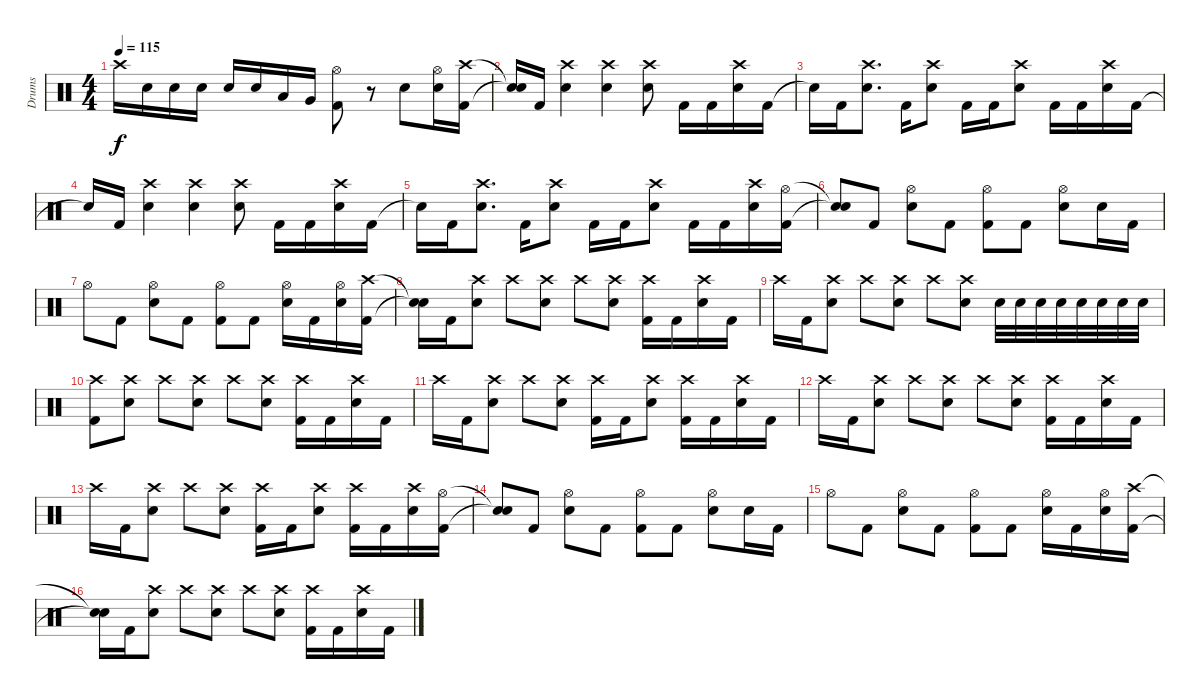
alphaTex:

\track ("Drums" "Drums") {instrument percussion}
\staff {score}
\articulation defaults
\ts (4 4)
\tempo 115
\clef neutral
\ks c "Crash high (hit)".16{dy f} "Electric Snare (hit)".16 "Electric Snare (hit)".16 "Electric Snare (hit)".16 "Electric Snare (hit)".16 "Electric Snare (hit)".16 "Low Tom (hit)".16 "Very Low Tom (hit)".16
("Hi-Hat (open)" "Kick (hit) 2").8 r.8{volume 0} "Electric Snare (hit)".8{volume 13} ("Hi-Hat (open)" "Electric Snare (hit)").16 ("Crash high (hit)" "Kick (hit) 2").16 |
("Snare (hit)"{t} "Snare (hit)"{t}).16 "Kick (hit) 2".16 ("Crash high (hit)" "Electric Snare (hit)").4 ("Crash high (hit)" "Electric Snare (hit)").4 ("Crash high (hit)" "Electric Snare (hit)").8 "Kick (hit) 2".16 "Kick (hit) 2".16 ("Crash high (hit)" "Electric Snare (hit)").16 "Kick (hit) 2".16 |
"Snare (hit)"{t}.16 "Kick (hit) 2".16 ("Crash high (hit)" "Electric Snare (hit)").8{d} "Kick (hit) 2".16 ("Crash high (hit)" "Electric Snare (hit)").8 "Kick (hit) 2".16 "Kick (hit) 2".16 ("Crash high (hit)" "Electric Snare (hit)").8 "Kick (hit) 2".16 "Kick (hit) 2".16 ("Crash high (hit)" "Electric Snare (hit)").16 "Kick (hit) 2".16 |
"Snare (hit)"{t}.16 "Kick (hit) 2".16 ("Crash high (hit)" "Electric Snare (hit)").4 ("Crash high (hit)" "Electric Snare (hit)").4 ("Crash high (hit)" "Electric Snare (hit)").8 "Kick (hit) 2".16 "Kick (hit) 2".16 ("Crash high (hit)" "Electric Snare (hit)").16 "Kick (hit) 2".16 |
"Snare (hit)"{t}.16 "Kick (hit) 2".16 ("Crash high (hit)" "Electric Snare (hit)").8{d} "Kick (hit) 2".16 ("Crash high (hit)" "Electric Snare (hit)").8 "Kick (hit) 2".16 "Kick (hit) 2".16 ("Crash high (hit)" "Electric Snare (hit)").8 "Kick (hit) 2".16 "Kick (hit) 2".16 ("Crash high (hit)" "Electric Snare (hit)").16 ("Hi-Hat (open)" "Kick (hit) 2").16 |
("Snare (hit)"{t} "Snare (hit)"{t}).8 "Kick (hit) 2".8 ("Hi-Hat (open)" "Electric Snare (hit)").8 "Kick (hit) 2".8 ("Hi-Hat (open)" "Kick (hit) 2").8 "Kick (hit) 2".8 ("Hi-Hat (open)" "Electric Snare (hit)").8 "Electric Snare (hit)".16 "Kick (hit) 2".16 |
"Hi-Hat (open)".8 "Kick (hit) 2".8 ("Hi-Hat (open)" "Electric Snare (hit)").8 "Kick (hit) 2".8 ("Hi-Hat (open)" "Kick (hit) 2").8 "Kick (hit) 2".8 ("Hi-Hat (open)" "Electric Snare (hit)").16 "Kick (hit) 2".16 ("Hi-Hat (open)" "Electric Snare (hit)").16 ("Crash high (hit)" "Kick (hit) 2").16 |
("Snare (hit)"{t} "Snare (hit)"{t}).16 "Kick (hit) 2".16 ("Crash high (hit)" "Electric Snare (hit)").8 "Crash high (hit)".8 ("Crash high (hit)" "Electric Snare (hit)").8 "Crash high (hit)".8 ("Crash high (hit)" "Electric Snare (hit)").8 ("Crash high (hit)" "Kick (hit) 2").16 "Kick (hit) 2".16 ("Crash high (hit)" "Electric Snare (hit)").16 "Kick (hit) 2".16 |
"Crash high (hit)".16 "Kick (hit) 2".16 ("Crash high (hit)" "Electric Snare (hit)").8 "Crash high (hit)".8 ("Crash high (hit)" "Electric Snare (hit)").8 "Crash high (hit)".8 ("Crash high (hit)" "Electric Snare (hit)").8 "Electric Snare (hit)".32 "Electric Snare (hit)".32 "Electric Snare (hit)".32 "Electric Snare (hit)".32 "Electric Snare (hit)".32 "Electric Snare (hit)".32 "Electric Snare (hit)".32 "Electric Snare (hit)".32 |
("Crash high (hit)" "Kick (hit) 2").8 ("Crash high (hit)" "Electric Snare (hit)").8 "Crash high (hit)".8 ("Crash high (hit)" "Electric Snare (hit)").8 "Crash high (hit)".8 ("Crash high (hit)" "Electric Snare (hit)").8 ("Crash high (hit)" "Kick (hit) 2").16 "Kick (hit) 2".16 ("Crash high (hit)" "Electric Snare (hit)").16 "Kick (hit) 2".16 |
"Crash high (hit)".16 "Kick (hit) 2".16 ("Crash high (hit)" "Electric Snare (hit)").8 "Crash high (hit)".8 ("Crash high (hit)" "Electric Snare (hit)").8 ("Crash high (hit)" "Kick (hit) 2").16 "Kick (hit) 2".16 ("Crash high (hit)" "Electric Snare (hit)").8 ("Crash high (hit)" "Kick (hit) 2").16 "Kick (hit) 2".16 ("Crash high (hit)" "Electric Snare (hit)").16 "Kick (hit) 2".16 |
"Crash high (hit)".16 "Kick (hit) 2".16 ("Crash high (hit)" "Electric Snare (hit)").8 "Crash high (hit)".8 ("Crash high (hit)" "Electric Snare (hit)").8 "Crash high (hit)".8 ("Crash high (hit)" "Electric Snare (hit)").8 ("Crash high (hit)" "Kick (hit) 2").16 "Kick (hit) 2".16 ("Crash high (hit)" "Electric Snare (hit)").16 "Kick (hit) 2".16 |
"Crash high (hit)".16 "Kick (hit) 2".16 ("Crash high (hit)" "Electric Snare (hit)").8 "Crash high (hit)".8 ("Crash high (hit)" "Electric Snare (hit)").8 ("Crash high (hit)" "Kick (hit) 2").16 "Kick (hit) 2".16 ("Crash high (hit)" "Electric Snare (hit)").8 ("Crash high (hit)" "Kick (hit) 2").16 "Kick (hit) 2".16 ("Crash high (hit)" "Electric Snare (hit)").16 ("Hi-Hat (open)" "Kick (hit) 2").16 |
("Snare (hit)"{t} "Snare (hit)"{t}).8 "Kick (hit) 2".8 ("Hi-Hat (open)" "Electric Snare (hit)").8 "Kick (hit) 2".8 ("Hi-Hat (open)" "Kick (hit) 2").8 "Kick (hit) 2".8 ("Hi-Hat (open)" "Electric Snare (hit)").8 "Electric Snare (hit)".16 "Kick (hit) 2".16 |
"Hi-Hat (open)".8 "Kick (hit) 2".8 ("Hi-Hat (open)" "Electric Snare (hit)").8 "Kick (hit) 2".8 ("Hi-Hat (open)" "Kick (hit) 2").8 "Kick (hit) 2".8 ("Hi-Hat (open)" "Electric Snare (hit)").16 "Kick (hit) 2".16 ("Hi-Hat (open)" "Electric Snare (hit)").16 ("Crash high (hit)" "Kick (hit) 2").16 |
("Snare (hit)"{t} "Snare (hit)"{t}).16 "Kick (hit) 2".16 ("Crash high (hit)" "Electric Snare (hit)").8 "Crash high (hit)".8 ("Crash high (hit)" "Electric Snare (hit)").8 "Crash high (hit)".8 ("Crash high (hit)" "Electric Snare (hit)").8 ("Crash high (hit)" "Kick (hit) 2").16 "Kick (hit) 2".16 ("Crash high (hit)" "Electric Snare (hit)").16 "Kick (hit) 2".16
